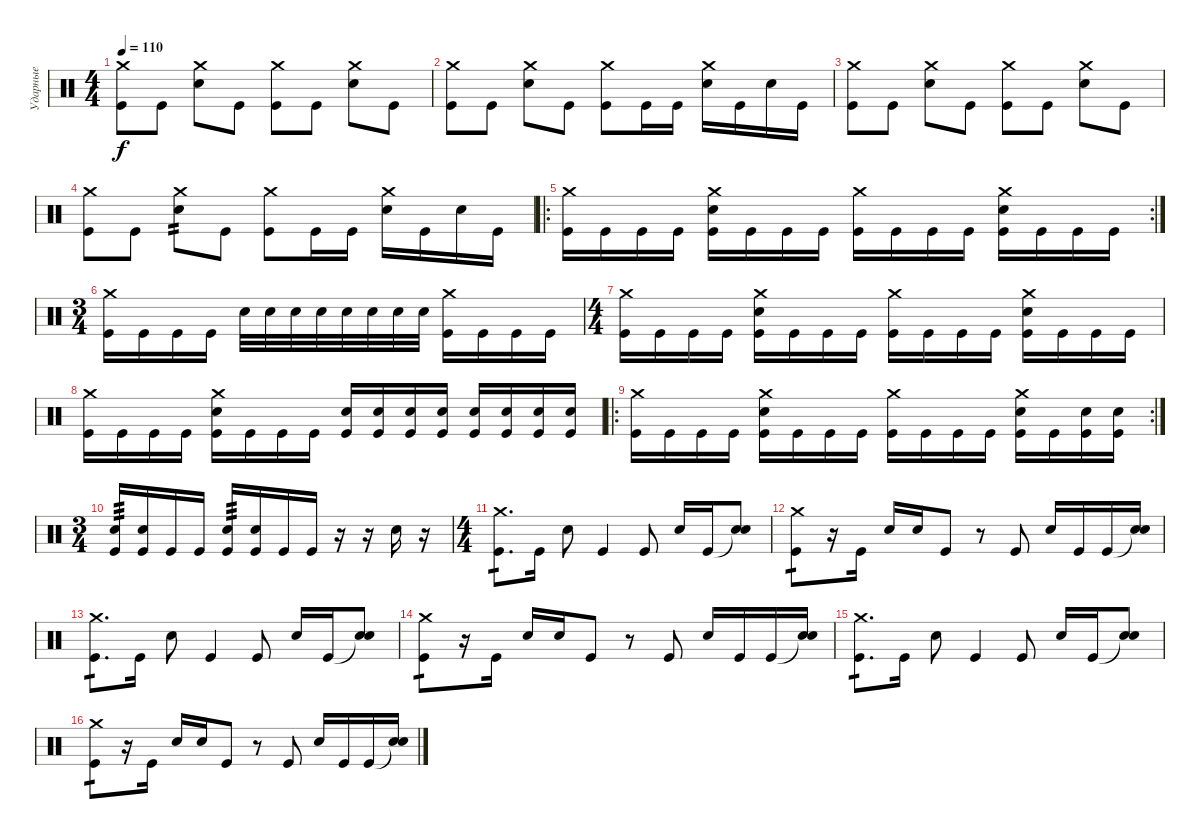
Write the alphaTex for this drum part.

\track ("Ударные" "Ударные") {instrument percussion}
\staff {score}
\articulation defaults
\ts (4 4)
\tempo 110
\clef neutral
\ks c
("Crash medium (hit)" "Kick (hit)").8{dy f} "Kick (hit)".8 ("Crash medium (hit)" "Electric Snare (hit)").8 "Kick (hit)".8 ("Crash medium (hit)" "Kick (hit)").8 "Kick (hit)".8 ("Crash medium (hit)" "Electric Snare (hit)").8 "Kick (hit)".8 |
("Crash medium (hit)" "Kick (hit)").8 "Kick (hit)".8 ("Crash medium (hit)" "Electric Snare (hit)").8 "Kick (hit)".8 ("Crash medium (hit)" "Kick (hit)").8 "Kick (hit)".16 "Kick (hit)".16 ("Crash medium (hit)" "Electric Snare (hit)").16 "Kick (hit)".16 "Electric Snare (hit)".16 "Kick (hit)".16 |
("Crash medium (hit)" "Kick (hit)").8 "Kick (hit)".8 ("Crash medium (hit)" "Electric Snare (hit)").8 "Kick (hit)".8 ("Crash medium (hit)" "Kick (hit)").8 "Kick (hit)".8 ("Crash medium (hit)" "Electric Snare (hit)").8 "Kick (hit)".8 |
("Crash medium (hit)" "Kick (hit)").8 "Kick (hit)".8 ("Crash medium (hit)" "Electric Snare (hit)").8{tp 2} "Kick (hit)".8 ("Crash medium (hit)" "Kick (hit)").8 "Kick (hit)".16 "Kick (hit)".16 ("Crash medium (hit)" "Electric Snare (hit)").16 "Kick (hit)".16 "Electric Snare (hit)".16 "Kick (hit)".16 |
\ro
\rc 2
("Crash medium (hit)" "Kick (hit)").16 "Kick (hit)".16 "Kick (hit)".16 "Kick (hit)".16 ("Crash medium (hit)" "Electric Snare (hit)" "Kick (hit)").16 "Kick (hit)".16 "Kick (hit)".16 "Kick (hit)".16 ("Crash medium (hit)" "Kick (hit)").16 "Kick (hit)".16 "Kick (hit)".16 "Kick (hit)".16 ("Crash medium (hit)" "Electric Snare (hit)" "Kick (hit)").16 "Kick (hit)".16 "Kick (hit)".16 "Kick (hit)".16 |
\ts (3 4)
("Crash medium (hit)" "Kick (hit)").16 "Kick (hit)".16 "Kick (hit)".16 "Kick (hit)".16 "Electric Snare (hit)".32 "Electric Snare (hit)".32 "Electric Snare (hit)".32 "Electric Snare (hit)".32 "Snare (hit) 2".32 "Snare (hit) 2".32 "Snare (hit) 2".32 "Snare (hit) 2".32 ("Crash medium (hit)" "Kick (hit)").16 "Kick (hit)".16 "Kick (hit)".16 "Kick (hit)".16 |
\ts (4 4)
("Crash medium (hit)" "Kick (hit)").16 "Kick (hit)".16 "Kick (hit)".16 "Kick (hit)".16 ("Crash medium (hit)" "Electric Snare (hit)" "Kick (hit)").16 "Kick (hit)".16 "Kick (hit)".16 "Kick (hit)".16 ("Crash medium (hit)" "Kick (hit)").16 "Kick (hit)".16 "Kick (hit)".16 "Kick (hit)".16 ("Crash medium (hit)" "Electric Snare (hit)" "Kick (hit)").16 "Kick (hit)".16 "Kick (hit)".16 "Kick (hit)".16 |
("Crash medium (hit)" "Kick (hit)").16 "Kick (hit)".16 "Kick (hit)".16 "Kick (hit)".16 ("Crash medium (hit)" "Electric Snare (hit)" "Kick (hit)").16 "Kick (hit)".16 "Kick (hit)".16 "Kick (hit)".16 ("Electric Snare (hit)" "Kick (hit)").16 ("Electric Snare (hit)" "Kick (hit)").16 ("Electric Snare (hit)" "Kick (hit)").16 ("Electric Snare (hit)" "Kick (hit)").16 ("Electric Snare (hit)" "Kick (hit)").16 ("Electric Snare (hit)" "Kick (hit)").16 ("Electric Snare (hit)" "Kick (hit)").16 ("Electric Snare (hit)" "Kick (hit)").16 |
\ro
\rc 2
("Crash medium (hit)" "Kick (hit)").16 "Kick (hit)".16 "Kick (hit)".16 "Kick (hit)".16 ("Crash medium (hit)" "Electric Snare (hit)" "Kick (hit)").16 "Kick (hit)".16 "Kick (hit)".16 "Kick (hit)".16 ("Crash medium (hit)" "Kick (hit)").16 "Kick (hit)".16 "Kick (hit)".16 "Kick (hit)".16 ("Crash medium (hit)" "Electric Snare (hit)" "Kick (hit)").16 "Kick (hit)".16 ("Electric Snare (hit)" "Kick (hit)").16 ("Electric Snare (hit)" "Kick (hit)").16 |
\ts (3 4)
("Electric Snare (hit)" "Kick (hit)").16{tp 3} ("Electric Snare (hit)" "Kick (hit)").16 "Kick (hit)".16 "Kick (hit)".16 ("Electric Snare (hit)" "Kick (hit)").16{tp 3} ("Electric Snare (hit)" "Kick (hit)").16 "Kick (hit)".16 "Kick (hit)".16 r.16 r.16 "Electric Snare (hit)".16 r.16 |
\ts (4 4)
("Crash medium (hit)" "Kick (hit)").8{d tp 1} "Kick (hit)".16 "Electric Snare (hit)".8 "Kick (hit)".4 "Kick (hit)".8 "Electric Snare (hit)".16 "Kick (hit)".16 ("Snare (hit)"{t} "Electric Snare (hit)").8 |
("Crash medium (hit)" "Kick (hit)").8{tp 1} r.16 "Kick (hit)".16 "Electric Snare (hit)".16 "Electric Snare (hit)".16 "Kick (hit)".8 r.8 "Kick (hit)".8 "Electric Snare (hit)".16 "Kick (hit)".16 "Kick (hit)".16 ("Snare (hit)"{t} "Electric Snare (hit)").16 |
("Crash medium (hit)" "Kick (hit)").8{d tp 1} "Kick (hit)".16 "Electric Snare (hit)".8 "Kick (hit)".4 "Kick (hit)".8 "Electric Snare (hit)".16 "Kick (hit)".16 ("Snare (hit)"{t} "Electric Snare (hit)").8 |
("Crash medium (hit)" "Kick (hit)").8{tp 1} r.16 "Kick (hit)".16 "Electric Snare (hit)".16 "Electric Snare (hit)".16 "Kick (hit)".8 r.8 "Kick (hit)".8 "Electric Snare (hit)".16 "Kick (hit)".16 "Kick (hit)".16 ("Snare (hit)"{t} "Electric Snare (hit)").16 |
("Crash medium (hit)" "Kick (hit)").8{d tp 1} "Kick (hit)".16 "Electric Snare (hit)".8 "Kick (hit)".4 "Kick (hit)".8 "Electric Snare (hit)".16 "Kick (hit)".16 ("Snare (hit)"{t} "Electric Snare (hit)").8 |
("Crash medium (hit)" "Kick (hit)").8{tp 1} r.16 "Kick (hit)".16 "Electric Snare (hit)".16 "Electric Snare (hit)".16 "Kick (hit)".8 r.8 "Kick (hit)".8 "Electric Snare (hit)".16 "Kick (hit)".16 "Kick (hit)".16 ("Snare (hit)"{t} "Electric Snare (hit)").16
